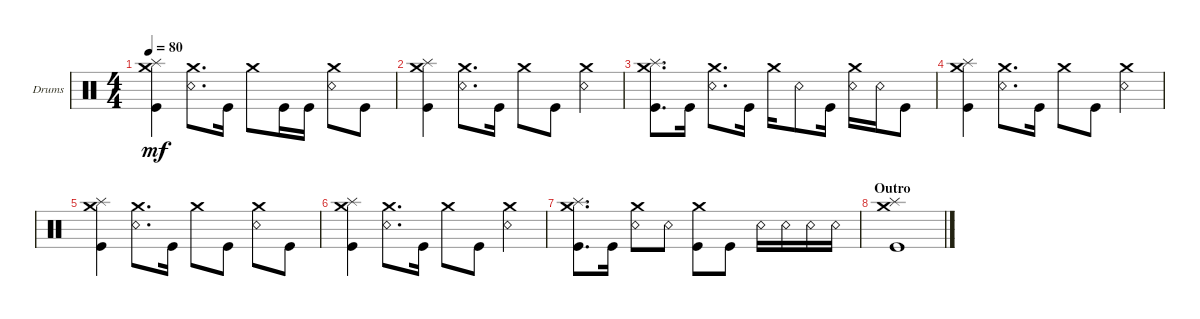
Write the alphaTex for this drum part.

\defaultSystemsLayout 4
\bracketExtendMode groupsimilarinstruments
\firstSystemTrackNameOrientation horizontal
\otherSystemsTrackNameOrientation horizontal
\track ("Drums" "Drums") {instrument percussion}
\staff {score}
\articulation defaults
\ts (4 4)
\tempo 80
\clef neutral
\ks c
("Kick (hit)" "Crash medium (hit)" "Splash (hit)").4{dy mf} ("Snare (rim shot)" "Crash medium (hit)").8{d} "Kick (hit)".16 "Crash medium (hit)".8 "Kick (hit)".16 "Kick (hit)".16 ("Snare (rim shot)" "Crash medium (hit)").8 "Kick (hit)".8 |
("Kick (hit)" "Crash medium (hit)" "Splash (hit)").4 ("Snare (rim shot)" "Crash medium (hit)").8{d} "Kick (hit)".16 "Crash medium (hit)".8 "Kick (hit)".8 ("Snare (rim shot)" "Crash medium (hit)").4 |
("Kick (hit)" "Crash medium (hit)" "Splash (hit)").8{d} "Kick (hit)".16 ("Snare (rim shot)" "Crash medium (hit)").8{d} "Kick (hit)".16 "Crash medium (hit)".16 "Snare (rim shot)".8 "Kick (hit)".16 ("Snare (rim shot)" "Crash medium (hit)").16 "Snare (rim shot)".16 "Kick (hit)".8 |
("Kick (hit)" "Crash medium (hit)" "Splash (hit)").4 ("Snare (rim shot)" "Crash medium (hit)").8{d} "Kick (hit)".16 "Crash medium (hit)".8 "Kick (hit)".8 ("Snare (rim shot)" "Crash medium (hit)").4 |
("Kick (hit)" "Crash medium (hit)" "Splash (hit)").4 ("Snare (rim shot)" "Crash medium (hit)").8{d} "Kick (hit)".16 "Crash medium (hit)".8 "Kick (hit)".8 ("Snare (rim shot)" "Crash medium (hit)").8 "Kick (hit)".8 |
("Kick (hit)" "Crash medium (hit)" "Splash (hit)").4 ("Snare (rim shot)" "Crash medium (hit)").8{d} "Kick (hit)".16 "Crash medium (hit)".8 "Kick (hit)".8 ("Snare (rim shot)" "Crash medium (hit)").4 |
("Kick (hit)" "Crash medium (hit)" "Splash (hit)").8{d} "Kick (hit)".16 ("Snare (rim shot)" "Crash medium (hit)").8 "Snare (rim shot)".8 ("Crash medium (hit)" "Kick (hit)").8 "Kick (hit)".8 "Snare (rim shot)".16 "Snare (rim shot)".16 "Snare (rim shot)".16 "Snare (rim shot)".16 |
\section ("" "Outro")
("Kick (hit)" "Crash medium (hit)" "Splash (hit)").1
